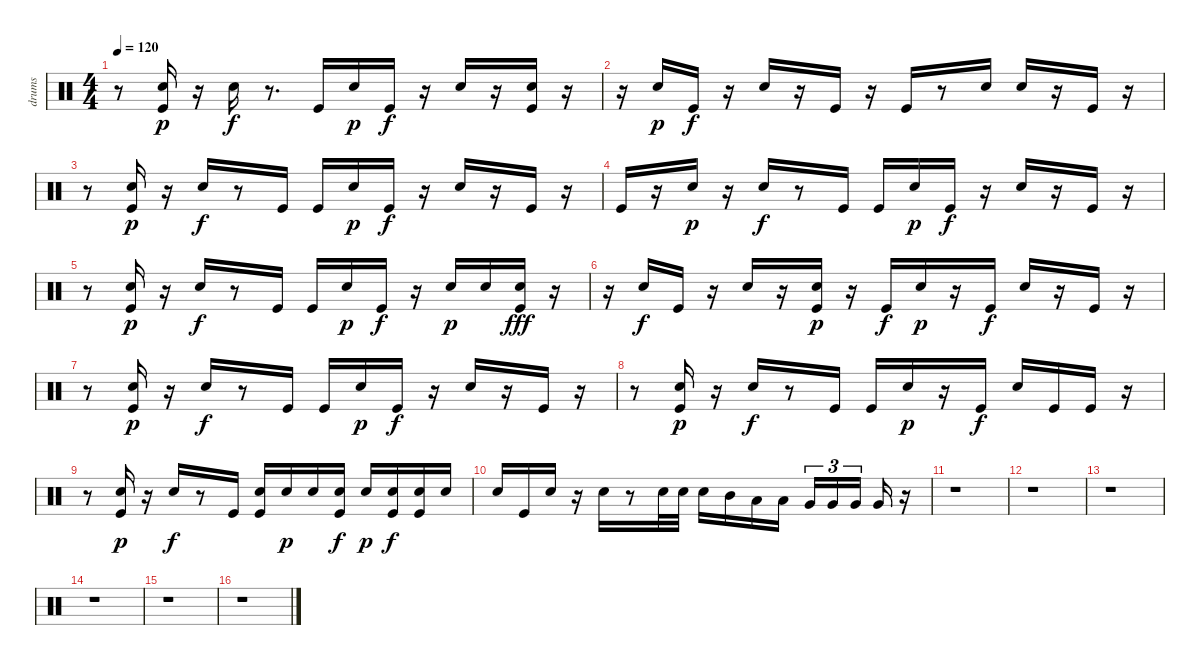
\track ("drums" "drums") {instrument percussion}
\staff {score}
\articulation defaults
\ts (4 4)
\tempo 120
\clef neutral
\ks c
r.8{dy f} ("Electric Snare (hit)" "Kick (hit)").16{dy p} r.16 "Electric Snare (hit)".16{dy f} r.8{d} "Kick (hit)".16 "Electric Snare (hit)".16{dy p} "Kick (hit)".16{dy f} r.16 "Electric Snare (hit)".16 r.16 ("Kick (hit)" "Electric Snare (hit)").16 r.16 |
r.16 "Electric Snare (hit)".16{dy p} "Kick (hit)".16{dy f} r.16 "Electric Snare (hit)".16 r.16 "Kick (hit)".16 r.16 "Kick (hit)".16 r.8 "Electric Snare (hit)".16 "Electric Snare (hit)".16 r.16 "Kick (hit)".16 r.16 |
r.8 ("Electric Snare (hit)" "Kick (hit)").16{dy p} r.16 "Electric Snare (hit)".16{dy f} r.8 "Kick (hit)".16 "Kick (hit)".16 "Electric Snare (hit)".16{dy p} "Kick (hit)".16{dy f} r.16 "Electric Snare (hit)".16 r.16 "Kick (hit)".16 r.16 |
"Kick (hit)".16 r.16 "Electric Snare (hit)".16{dy p} r.16 "Electric Snare (hit)".16{dy f} r.8 "Kick (hit)".16 "Kick (hit)".16 "Electric Snare (hit)".16{dy p} "Kick (hit)".16{dy f} r.16 "Electric Snare (hit)".16 r.16 "Kick (hit)".16 r.16 |
r.8 ("Electric Snare (hit)" "Kick (hit)").16{dy p} r.16 "Electric Snare (hit)".16{dy f} r.8 "Kick (hit)".16 "Kick (hit)".16 "Electric Snare (hit)".16{dy p} "Kick (hit)".16{dy f} r.16 "Electric Snare (hit)".16{dy p} "Electric Snare (hit)".16 ("Kick (hit)" "Electric Snare (hit)").16{dy fff} r.16 |
r.16 "Electric Snare (hit)".16{dy f} "Kick (hit)".16 r.16 "Electric Snare (hit)".16 r.16 ("Kick (hit)" "Electric Snare (hit)").16{dy p} r.16 "Kick (hit)".16{dy f} "Electric Snare (hit)".16{dy p} r.16 "Kick (hit)".16{dy f} "Electric Snare (hit)".16 r.16 "Kick (hit)".16 r.16 |
r.8 ("Electric Snare (hit)" "Kick (hit)").16{dy p} r.16 "Electric Snare (hit)".16{dy f} r.8 "Kick (hit)".16 "Kick (hit)".16 "Electric Snare (hit)".16{dy p} "Kick (hit)".16{dy f} r.16 "Electric Snare (hit)".16 r.16 "Kick (hit)".16 r.16 |
r.8 ("Electric Snare (hit)" "Kick (hit)").16{dy p} r.16 "Electric Snare (hit)".16{dy f} r.8 "Kick (hit)".16 "Kick (hit)".16 "Electric Snare (hit)".16{dy p} r.16 "Kick (hit)".16{dy f} "Electric Snare (hit)".16 "Kick (hit)".16 "Kick (hit)".16 r.16 |
r.8 ("Electric Snare (hit)" "Kick (hit)").16{dy p} r.16 "Electric Snare (hit)".16{dy f} r.8 "Kick (hit)".16 ("Electric Snare (hit)" "Kick (hit)").16 "Electric Snare (hit)".16{dy p} "Electric Snare (hit)".16 ("Electric Snare (hit)" "Kick (hit)").16{dy f} "Electric Snare (hit)".16{dy p} ("Electric Snare (hit)" "Kick (hit)").16{dy f} ("Electric Snare (hit)" "Kick (hit)").16 "Electric Snare (hit)".16 |
"Electric Snare (hit)".16 "Kick (hit)".16 "Electric Snare (hit)".16 r.16 "Electric Snare (hit)".16 r.8 "Electric Snare (hit)".32 "Electric Snare (hit)".32 "Electric Snare (hit)".16 "Mid Tom (hit)".16 "Low Tom (hit)".16 "Low Tom (hit)".16 "Very Low Tom (hit)".16{tu (3 2)} "Very Low Tom (hit)".16{tu (3 2)} "Very Low Tom (hit)".16{tu (3 2) beam splitsecondary} "Very Low Tom (hit)".16 r.16 |
r.1 |
r.1 |
r.1 |
r.1 |
r.1 |
r.1
